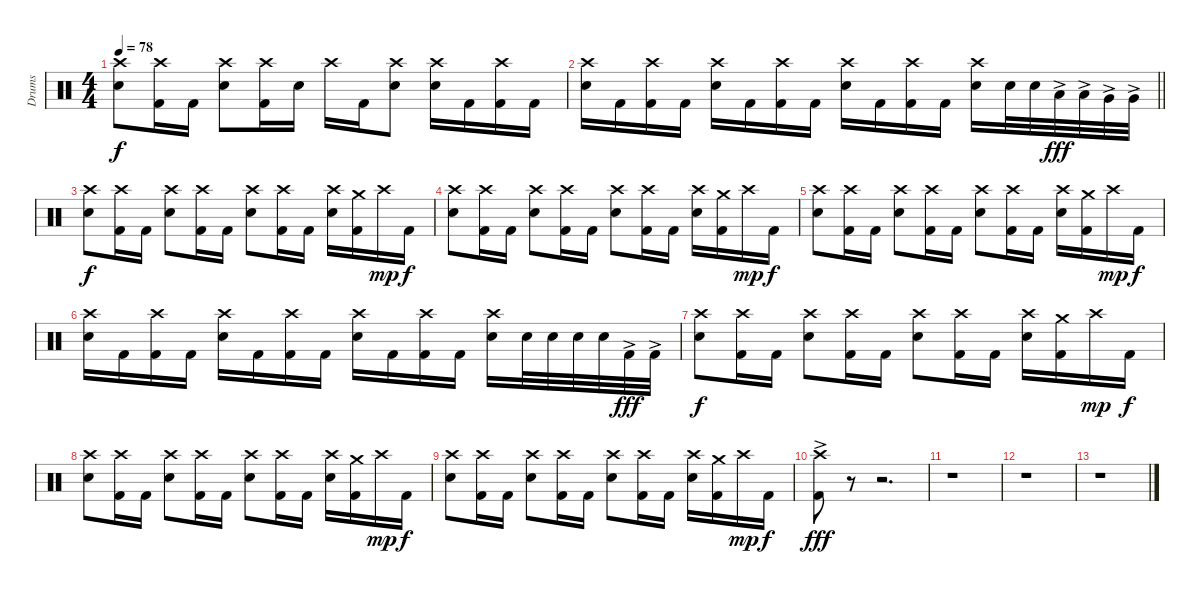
\track ("Drums" "Drums") {instrument percussion}
\staff {score}
\articulation defaults
\ts (4 4)
\tempo 78
\clef neutral
\ks c
("Crash high (hit)" "Snare (hit) 2").8{dy f} ("Crash high (hit)" "Kick (hit) 2").16 "Kick (hit) 2".16 ("Crash high (hit)" "Snare (hit) 2").8 ("Crash high (hit)" "Kick (hit) 2").16 "Snare (hit) 2".16 "Crash high (hit)".16 "Kick (hit) 2".16 ("Crash high (hit)" "Snare (hit) 2").8 ("Crash high (hit)" "Snare (hit) 2").16 "Kick (hit) 2".16 ("Crash high (hit)" "Kick (hit) 2").16 "Kick (hit) 2".16 |
\barLineRight lightlight
("Crash high (hit)" "Snare (hit) 2").16 "Kick (hit) 2".16 ("Crash high (hit)" "Kick (hit) 2").16 "Kick (hit) 2".16 ("Crash high (hit)" "Snare (hit) 2").16 "Kick (hit) 2".16 ("Crash high (hit)" "Kick (hit) 2").16 "Kick (hit) 2".16 ("Crash high (hit)" "Snare (hit) 2").16 "Kick (hit) 2".16 ("Crash high (hit)" "Kick (hit) 2").16 "Kick (hit) 2".16 ("Crash high (hit)" "Snare (hit) 2").16 "Snare (hit) 2".32 "Snare (hit) 2".32 "Low Tom (hit)"{ac}.32{dy fff} "Low Tom (hit)"{ac}.32 "Very Low Tom (hit)"{ac}.32 "Very Low Tom (hit)"{ac}.32 |
("Crash high (hit)" "Snare (hit) 2").8{dy f} ("Crash high (hit)" "Kick (hit) 2").16 "Kick (hit) 2".16 ("Crash high (hit)" "Snare (hit) 2").8 ("Crash high (hit)" "Kick (hit) 2").16 "Kick (hit) 2".16 ("Crash high (hit)" "Snare (hit) 2").8 ("Crash high (hit)" "Kick (hit) 2").16 "Kick (hit) 2".16 ("Crash high (hit)" "Snare (hit) 2").16 ("Crash medium (hit)" "Kick (hit) 2").16 "Crash high (hit)".16{dy mp} "Kick (hit) 2".16{dy f} |
("Crash high (hit)" "Snare (hit) 2").8 ("Crash high (hit)" "Kick (hit) 2").16 "Kick (hit) 2".16 ("Crash high (hit)" "Snare (hit) 2").8 ("Crash high (hit)" "Kick (hit) 2").16 "Kick (hit) 2".16 ("Crash high (hit)" "Snare (hit) 2").8 ("Crash high (hit)" "Kick (hit) 2").16 "Kick (hit) 2".16 ("Crash high (hit)" "Snare (hit) 2").16 ("Crash medium (hit)" "Kick (hit) 2").16 "Crash high (hit)".16{dy mp} "Kick (hit) 2".16{dy f} |
("Crash high (hit)" "Snare (hit) 2").8 ("Crash high (hit)" "Kick (hit) 2").16 "Kick (hit) 2".16 ("Crash high (hit)" "Snare (hit) 2").8 ("Crash high (hit)" "Kick (hit) 2").16 "Kick (hit) 2".16 ("Crash high (hit)" "Snare (hit) 2").8 ("Crash high (hit)" "Kick (hit) 2").16 "Kick (hit) 2".16 ("Crash high (hit)" "Snare (hit) 2").16 ("Crash medium (hit)" "Kick (hit) 2").16 "Crash high (hit)".16{dy mp} "Kick (hit) 2".16{dy f} |
("Crash high (hit)" "Snare (hit) 2").16 "Kick (hit) 2".16 ("Crash high (hit)" "Kick (hit) 2").16 "Kick (hit) 2".16 ("Crash high (hit)" "Snare (hit) 2").16 "Kick (hit) 2".16 ("Crash high (hit)" "Kick (hit) 2").16 "Kick (hit) 2".16 ("Crash high (hit)" "Snare (hit) 2").16 "Kick (hit) 2".16 ("Crash high (hit)" "Kick (hit) 2").16 "Kick (hit) 2".16 ("Crash high (hit)" "Snare (hit) 2").16 "Snare (hit) 2".32 "Snare (hit) 2".32 "Snare (hit) 2".32 "Snare (hit) 2".32 "Kick (hit) 2"{ac}.32{dy fff} "Kick (hit) 2"{ac}.32 |
("Crash high (hit)" "Snare (hit) 2").8{dy f} ("Crash high (hit)" "Kick (hit) 2").16 "Kick (hit) 2".16 ("Crash high (hit)" "Snare (hit) 2").8 ("Crash high (hit)" "Kick (hit) 2").16 "Kick (hit) 2".16 ("Crash high (hit)" "Snare (hit) 2").8 ("Crash high (hit)" "Kick (hit) 2").16 "Kick (hit) 2".16 ("Crash high (hit)" "Snare (hit) 2").16 ("Crash medium (hit)" "Kick (hit) 2").16 "Crash high (hit)".16{dy mp} "Kick (hit) 2".16{dy f} |
("Crash high (hit)" "Snare (hit) 2").8 ("Crash high (hit)" "Kick (hit) 2").16 "Kick (hit) 2".16 ("Crash high (hit)" "Snare (hit) 2").8 ("Crash high (hit)" "Kick (hit) 2").16 "Kick (hit) 2".16 ("Crash high (hit)" "Snare (hit) 2").8 ("Crash high (hit)" "Kick (hit) 2").16 "Kick (hit) 2".16 ("Crash high (hit)" "Snare (hit) 2").16 ("Crash medium (hit)" "Kick (hit) 2").16 "Crash high (hit)".16{dy mp} "Kick (hit) 2".16{dy f} |
("Crash high (hit)" "Snare (hit) 2").8 ("Crash high (hit)" "Kick (hit) 2").16 "Kick (hit) 2".16 ("Crash high (hit)" "Snare (hit) 2").8 ("Crash high (hit)" "Kick (hit) 2").16 "Kick (hit) 2".16 ("Crash high (hit)" "Snare (hit) 2").8 ("Crash high (hit)" "Kick (hit) 2").16 "Kick (hit) 2".16 ("Crash high (hit)" "Snare (hit) 2").16 ("Crash medium (hit)" "Kick (hit) 2").16 "Crash high (hit)".16{dy mp} "Kick (hit) 2".16{dy f} |
("Crash high (hit)" "Kick (hit) 2"{ac}).8{dy fff} r.8{volume 0} r.2{d} |
r.1 |
r.1 |
r.1
